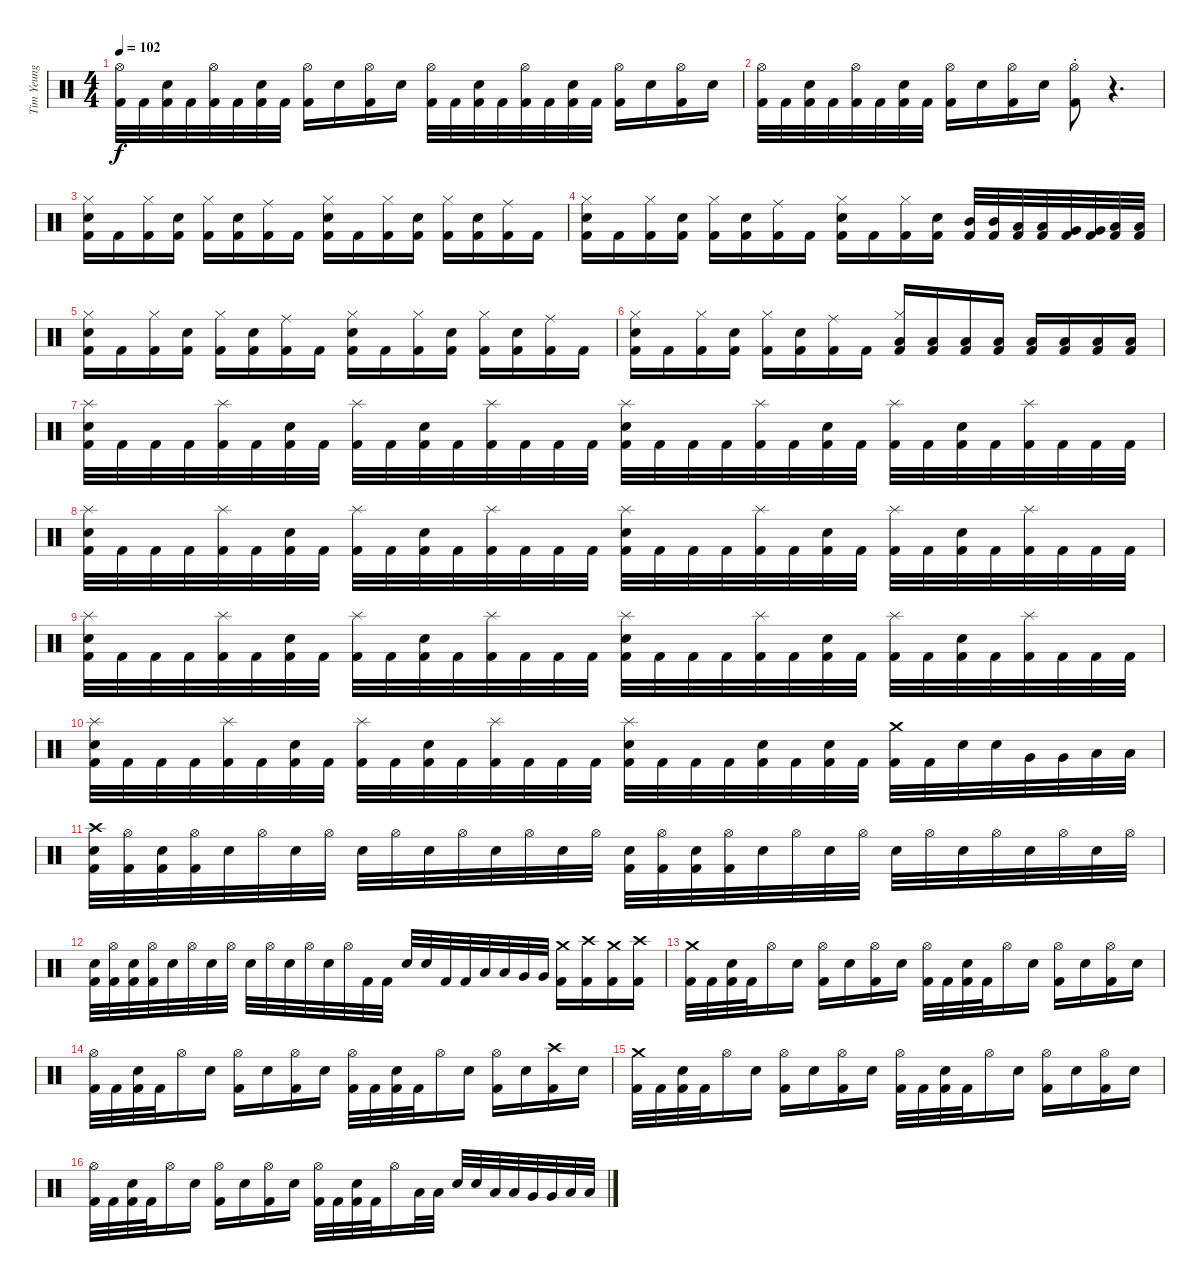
\track ("Tim Yeung" "Tim Yeung") {instrument percussion}
\staff {score}
\articulation defaults
\ts (4 4)
\tempo 102
\clef neutral
\ks c
("Hi-Hat (open)" "Kick (hit) 2").32{dy f} "Kick (hit) 2".32 ("Electric Snare (hit)" "Kick (hit) 2").32 "Kick (hit) 2".32 ("Hi-Hat (open)" "Kick (hit) 2").32 "Kick (hit) 2".32 ("Electric Snare (hit)" "Kick (hit) 2").32 "Kick (hit) 2".32 ("Hi-Hat (open)" "Kick (hit) 2").16 "Electric Snare (hit)".16 ("Hi-Hat (open)" "Kick (hit) 2").16 "Electric Snare (hit)".16 ("Hi-Hat (open)" "Kick (hit) 2").32 "Kick (hit) 2".32 ("Electric Snare (hit)" "Kick (hit) 2").32 "Kick (hit) 2".32 ("Hi-Hat (open)" "Kick (hit) 2").32 "Kick (hit) 2".32 ("Electric Snare (hit)" "Kick (hit) 2").32 "Kick (hit) 2".32 ("Hi-Hat (open)" "Kick (hit) 2").16 "Electric Snare (hit)".16 ("Hi-Hat (open)" "Kick (hit) 2").16 "Electric Snare (hit)".16 |
("Hi-Hat (open)" "Kick (hit) 2").32 "Kick (hit) 2".32 ("Electric Snare (hit)" "Kick (hit) 2").32 "Kick (hit) 2".32 ("Hi-Hat (open)" "Kick (hit) 2").32 "Kick (hit) 2".32 ("Electric Snare (hit)" "Kick (hit) 2").32 "Kick (hit) 2".32 ("Hi-Hat (open)" "Kick (hit) 2").16 "Electric Snare (hit)".16 ("Hi-Hat (open)" "Kick (hit) 2").16 "Electric Snare (hit)".16 ("Hi-Hat (open)"{st} "Kick (hit) 2"{st}).8 r.4{d} |
("Hi-Hat (closed)" "Electric Snare (hit)" "Kick (hit) 2").16 "Kick (hit) 2".16 ("Hi-Hat (closed)" "Kick (hit) 2").16 ("Electric Snare (hit)" "Kick (hit) 2").16 ("Hi-Hat (closed)" "Kick (hit) 2").16 ("Electric Snare (hit)" "Kick (hit) 2").16 ("Ride (middle)" "Kick (hit) 2").16 "Kick (hit) 2".16 ("Hi-Hat (closed)" "Electric Snare (hit)" "Kick (hit) 2").16 "Kick (hit) 2".16 ("Hi-Hat (closed)" "Kick (hit) 2").16 ("Electric Snare (hit)" "Kick (hit) 2").16 ("Hi-Hat (closed)" "Kick (hit) 2").16 ("Electric Snare (hit)" "Kick (hit) 2").16 ("Ride (middle)" "Kick (hit) 2").16 "Kick (hit) 2".16 |
("Hi-Hat (closed)" "Electric Snare (hit)" "Kick (hit) 2").16 "Kick (hit) 2".16 ("Hi-Hat (closed)" "Kick (hit) 2").16 ("Electric Snare (hit)" "Kick (hit) 2").16 ("Hi-Hat (closed)" "Kick (hit) 2").16 ("Electric Snare (hit)" "Kick (hit) 2").16 ("Ride (middle)" "Kick (hit) 2").16 "Kick (hit) 2".16 ("Hi-Hat (closed)" "Electric Snare (hit)" "Kick (hit) 2").16 "Kick (hit) 2".16 ("Hi-Hat (closed)" "Kick (hit) 2").16 ("Electric Snare (hit)" "Kick (hit) 2").16 ("Mid Tom (hit)" "Kick (hit) 2").32 ("Mid Tom (hit)" "Kick (hit) 2").32 ("Low Tom (hit)" "Kick (hit) 2").32 ("Low Tom (hit)" "Kick (hit) 2").32 ("Very Low Tom (hit)" "Kick (hit) 2").32 ("Very Low Tom (hit)" "Kick (hit) 2").32 ("Low Floor Tom (hit)" "Kick (hit) 2").32 ("Low Floor Tom (hit)" "Kick (hit) 2").32 |
("Hi-Hat (closed)" "Electric Snare (hit)" "Kick (hit) 2").16 "Kick (hit) 2".16 ("Hi-Hat (closed)" "Kick (hit) 2").16 ("Electric Snare (hit)" "Kick (hit) 2").16 ("Hi-Hat (closed)" "Kick (hit) 2").16 ("Electric Snare (hit)" "Kick (hit) 2").16 ("Ride (middle)" "Kick (hit) 2").16 "Kick (hit) 2".16 ("Hi-Hat (closed)" "Electric Snare (hit)" "Kick (hit) 2").16 "Kick (hit) 2".16 ("Hi-Hat (closed)" "Kick (hit) 2").16 ("Electric Snare (hit)" "Kick (hit) 2").16 ("Hi-Hat (closed)" "Kick (hit) 2").16 ("Electric Snare (hit)" "Kick (hit) 2").16 ("Ride (middle)" "Kick (hit) 2").16 "Kick (hit) 2".16 |
("Hi-Hat (closed)" "Electric Snare (hit)" "Kick (hit) 2").16 "Kick (hit) 2".16 ("Hi-Hat (closed)" "Kick (hit) 2").16 ("Electric Snare (hit)" "Kick (hit) 2").16 ("Hi-Hat (closed)" "Kick (hit) 2").16 ("Electric Snare (hit)" "Kick (hit) 2").16 ("Ride (middle)" "Kick (hit) 2").16 "Kick (hit) 2".16 ("Hi-Hat (closed)" "Low Floor Tom (hit)" "Kick (hit) 2").16 ("Low Floor Tom (hit)" "Kick (hit) 2").16 ("Low Floor Tom (hit)" "Kick (hit) 2").16 ("Low Floor Tom (hit)" "Kick (hit) 2").16 ("Low Floor Tom (hit)" "Kick (hit) 2").16 ("Low Floor Tom (hit)" "Kick (hit) 2").16 ("Low Floor Tom (hit)" "Kick (hit) 2").16 ("Low Floor Tom (hit)" "Kick (hit) 2").16 |
("Splash (hit)" "Electric Snare (hit)" "Kick (hit) 2").32 "Kick (hit) 2".32 "Kick (hit) 2".32 "Kick (hit) 2".32 ("Splash (hit)" "Kick (hit) 2").32 "Kick (hit) 2".32 ("Electric Snare (hit)" "Kick (hit) 2").32 "Kick (hit) 2".32 ("Splash (hit)" "Kick (hit) 2").32 "Kick (hit) 2".32 ("Electric Snare (hit)" "Kick (hit) 2").32 "Kick (hit) 2".32 ("Splash (hit)" "Kick (hit) 2").32 "Kick (hit) 2".32 "Kick (hit) 2".32 "Kick (hit) 2".32 ("Splash (hit)" "Electric Snare (hit)" "Kick (hit) 2").32 "Kick (hit) 2".32 "Kick (hit) 2".32 "Kick (hit) 2".32 ("Splash (hit)" "Kick (hit) 2").32 "Kick (hit) 2".32 ("Electric Snare (hit)" "Kick (hit) 2").32 "Kick (hit) 2".32 ("Splash (hit)" "Kick (hit) 2").32 "Kick (hit) 2".32 ("Electric Snare (hit)" "Kick (hit) 2").32 "Kick (hit) 2".32 ("Splash (hit)" "Kick (hit) 2").32 "Kick (hit) 2".32 "Kick (hit) 2".32 "Kick (hit) 2".32 |
("Splash (hit)" "Electric Snare (hit)" "Kick (hit) 2").32 "Kick (hit) 2".32 "Kick (hit) 2".32 "Kick (hit) 2".32 ("Splash (hit)" "Kick (hit) 2").32 "Kick (hit) 2".32 ("Electric Snare (hit)" "Kick (hit) 2").32 "Kick (hit) 2".32 ("Splash (hit)" "Kick (hit) 2").32 "Kick (hit) 2".32 ("Electric Snare (hit)" "Kick (hit) 2").32 "Kick (hit) 2".32 ("Splash (hit)" "Kick (hit) 2").32 "Kick (hit) 2".32 "Kick (hit) 2".32 "Kick (hit) 2".32 ("Splash (hit)" "Electric Snare (hit)" "Kick (hit) 2").32 "Kick (hit) 2".32 "Kick (hit) 2".32 "Kick (hit) 2".32 ("Splash (hit)" "Kick (hit) 2").32 "Kick (hit) 2".32 ("Electric Snare (hit)" "Kick (hit) 2").32 "Kick (hit) 2".32 ("Splash (hit)" "Kick (hit) 2").32 "Kick (hit) 2".32 ("Electric Snare (hit)" "Kick (hit) 2").32 "Kick (hit) 2".32 ("Splash (hit)" "Kick (hit) 2").32 "Kick (hit) 2".32 "Kick (hit) 2".32 "Kick (hit) 2".32 |
("Splash (hit)" "Electric Snare (hit)" "Kick (hit) 2").32 "Kick (hit) 2".32 "Kick (hit) 2".32 "Kick (hit) 2".32 ("Splash (hit)" "Kick (hit) 2").32 "Kick (hit) 2".32 ("Electric Snare (hit)" "Kick (hit) 2").32 "Kick (hit) 2".32 ("Splash (hit)" "Kick (hit) 2").32 "Kick (hit) 2".32 ("Electric Snare (hit)" "Kick (hit) 2").32 "Kick (hit) 2".32 ("Splash (hit)" "Kick (hit) 2").32 "Kick (hit) 2".32 "Kick (hit) 2".32 "Kick (hit) 2".32 ("Splash (hit)" "Electric Snare (hit)" "Kick (hit) 2").32 "Kick (hit) 2".32 "Kick (hit) 2".32 "Kick (hit) 2".32 ("Splash (hit)" "Kick (hit) 2").32 "Kick (hit) 2".32 ("Electric Snare (hit)" "Kick (hit) 2").32 "Kick (hit) 2".32 ("Splash (hit)" "Kick (hit) 2").32 "Kick (hit) 2".32 ("Electric Snare (hit)" "Kick (hit) 2").32 "Kick (hit) 2".32 ("Splash (hit)" "Kick (hit) 2").32 "Kick (hit) 2".32 "Kick (hit) 2".32 "Kick (hit) 2".32 |
("Splash (hit)" "Electric Snare (hit)" "Kick (hit) 2").32 "Kick (hit) 2".32 "Kick (hit) 2".32 "Kick (hit) 2".32 ("Splash (hit)" "Kick (hit) 2").32 "Kick (hit) 2".32 ("Electric Snare (hit)" "Kick (hit) 2").32 "Kick (hit) 2".32 ("Splash (hit)" "Kick (hit) 2").32 "Kick (hit) 2".32 ("Electric Snare (hit)" "Kick (hit) 2").32 "Kick (hit) 2".32 ("Splash (hit)" "Kick (hit) 2").32 "Kick (hit) 2".32 "Kick (hit) 2".32 "Kick (hit) 2".32 ("Splash (hit)" "Electric Snare (hit)" "Kick (hit) 2").32 "Kick (hit) 2".32 "Kick (hit) 2".32 "Kick (hit) 2".32 ("Electric Snare (hit)" "Kick (hit) 2").32 "Kick (hit) 2".32 ("Electric Snare (hit)" "Kick (hit) 2").32 "Kick (hit) 2".32 ("Crash medium (hit)" "Kick (hit) 2").32 "Kick (hit) 2".32 "Electric Snare (hit)".32 "Electric Snare (hit)".32 "Very Low Tom (hit)".32 "Very Low Tom (hit)".32 "Low Floor Tom (hit)".32 "Low Floor Tom (hit)".32 |
("Crash high (hit)" "Electric Snare (hit)" "Kick (hit) 2").32 ("Hi-Hat (open)" "Kick (hit) 2").32 ("Electric Snare (hit)" "Kick (hit) 2").32 ("Hi-Hat (open)" "Kick (hit) 2").32 "Electric Snare (hit)".32 "Hi-Hat (open)".32 "Electric Snare (hit)".32 "Hi-Hat (open)".32 "Electric Snare (hit)".32 "Hi-Hat (open)".32 "Electric Snare (hit)".32 "Hi-Hat (open)".32 "Electric Snare (hit)".32 "Hi-Hat (open)".32 "Electric Snare (hit)".32 "Hi-Hat (open)".32 ("Electric Snare (hit)" "Kick (hit) 2").32 ("Hi-Hat (open)" "Kick (hit) 2").32 ("Electric Snare (hit)" "Kick (hit) 2").32 ("Hi-Hat (open)" "Kick (hit) 2").32 "Electric Snare (hit)".32 "Hi-Hat (open)".32 "Electric Snare (hit)".32 "Hi-Hat (open)".32 "Electric Snare (hit)".32 "Hi-Hat (open)".32 "Electric Snare (hit)".32 "Hi-Hat (open)".32 "Electric Snare (hit)".32 "Hi-Hat (open)".32 "Electric Snare (hit)".32 "Hi-Hat (open)".32 |
("Electric Snare (hit)" "Kick (hit) 2").32 ("Hi-Hat (open)" "Kick (hit) 2").32 ("Electric Snare (hit)" "Kick (hit) 2").32 ("Hi-Hat (open)" "Kick (hit) 2").32 "Electric Snare (hit)".32 "Hi-Hat (open)".32 "Electric Snare (hit)".32 "Hi-Hat (open)".32 "Electric Snare (hit)".32 "Hi-Hat (open)".32 "Electric Snare (hit)".32 "Hi-Hat (open)".32 "Electric Snare (hit)".32 "Hi-Hat (open)".32 "Kick (hit) 2".32 "Kick (hit) 2".32 "Electric Snare (hit)".32 "Electric Snare (hit)".32 "Kick (hit) 2".32 "Kick (hit) 2".32 "Low Tom (hit)".32 "Low Tom (hit)".32 "Very Low Tom (hit)".32 "Very Low Tom (hit)".32 ("Crash medium (hit)" "Kick (hit) 2").16 ("Crash high (hit)" "Kick (hit) 2").16 ("Crash medium (hit)" "Kick (hit) 2").16 ("Crash high (hit)" "Kick (hit) 2").16 |
("Crash medium (hit)" "Kick (hit) 2").32 "Kick (hit) 2".32 ("Electric Snare (hit)" "Kick (hit) 2").32 "Kick (hit) 2".32 "Hi-Hat (open)".16 "Electric Snare (hit)".16 ("Hi-Hat (open)" "Kick (hit) 2").16 "Electric Snare (hit)".16 ("Hi-Hat (open)" "Kick (hit) 2").16 "Electric Snare (hit)".16 ("Hi-Hat (open)" "Kick (hit) 2").32 "Kick (hit) 2".32 ("Electric Snare (hit)" "Kick (hit) 2").32 "Kick (hit) 2".32 "Hi-Hat (open)".16 "Electric Snare (hit)".16 ("Hi-Hat (open)" "Kick (hit) 2").16 "Electric Snare (hit)".16 ("Hi-Hat (open)" "Kick (hit) 2").16 "Electric Snare (hit)".16 |
("Hi-Hat (open)" "Kick (hit) 2").32 "Kick (hit) 2".32 ("Electric Snare (hit)" "Kick (hit) 2").32 "Kick (hit) 2".32 "Hi-Hat (open)".16 "Electric Snare (hit)".16 ("Hi-Hat (open)" "Kick (hit) 2").16 "Electric Snare (hit)".16 ("Hi-Hat (open)" "Kick (hit) 2").16 "Electric Snare (hit)".16 ("Hi-Hat (open)" "Kick (hit) 2").32 "Kick (hit) 2".32 ("Electric Snare (hit)" "Kick (hit) 2").32 "Kick (hit) 2".32 "Hi-Hat (open)".16 "Electric Snare (hit)".16 ("Hi-Hat (open)" "Kick (hit) 2").16 "Electric Snare (hit)".16 ("Crash high (hit)" "Kick (hit) 2").16 "Electric Snare (hit)".16 |
("Crash medium (hit)" "Kick (hit) 2").32 "Kick (hit) 2".32 ("Electric Snare (hit)" "Kick (hit) 2").32 "Kick (hit) 2".32 "Hi-Hat (open)".16 "Electric Snare (hit)".16 ("Hi-Hat (open)" "Kick (hit) 2").16 "Electric Snare (hit)".16 ("Hi-Hat (open)" "Kick (hit) 2").16 "Electric Snare (hit)".16 ("Hi-Hat (open)" "Kick (hit) 2").32 "Kick (hit) 2".32 ("Electric Snare (hit)" "Kick (hit) 2").32 "Kick (hit) 2".32 "Hi-Hat (open)".16 "Electric Snare (hit)".16 ("Hi-Hat (open)" "Kick (hit) 2").16 "Electric Snare (hit)".16 ("Hi-Hat (open)" "Kick (hit) 2").16 "Electric Snare (hit)".16 |
("Hi-Hat (open)" "Kick (hit) 2").32 "Kick (hit) 2".32 ("Electric Snare (hit)" "Kick (hit) 2").32 "Kick (hit) 2".32 "Hi-Hat (open)".16 "Electric Snare (hit)".16 ("Hi-Hat (open)" "Kick (hit) 2").16 "Electric Snare (hit)".16 ("Hi-Hat (open)" "Kick (hit) 2").16 "Electric Snare (hit)".16 ("Hi-Hat (open)" "Kick (hit) 2").32 "Kick (hit) 2".32 ("Electric Snare (hit)" "Kick (hit) 2").32 "Kick (hit) 2".32 "Hi-Hat (open)".16 "Low Tom (hit)".32 "Low Tom (hit)".32 "Electric Snare (hit)".32 "Electric Snare (hit)".32 "Low Tom (hit)".32 "Low Tom (hit)".32 "Very Low Tom (hit)".32 "Very Low Tom (hit)".32 "Low Floor Tom (hit)".32 "Low Floor Tom (hit)".32
